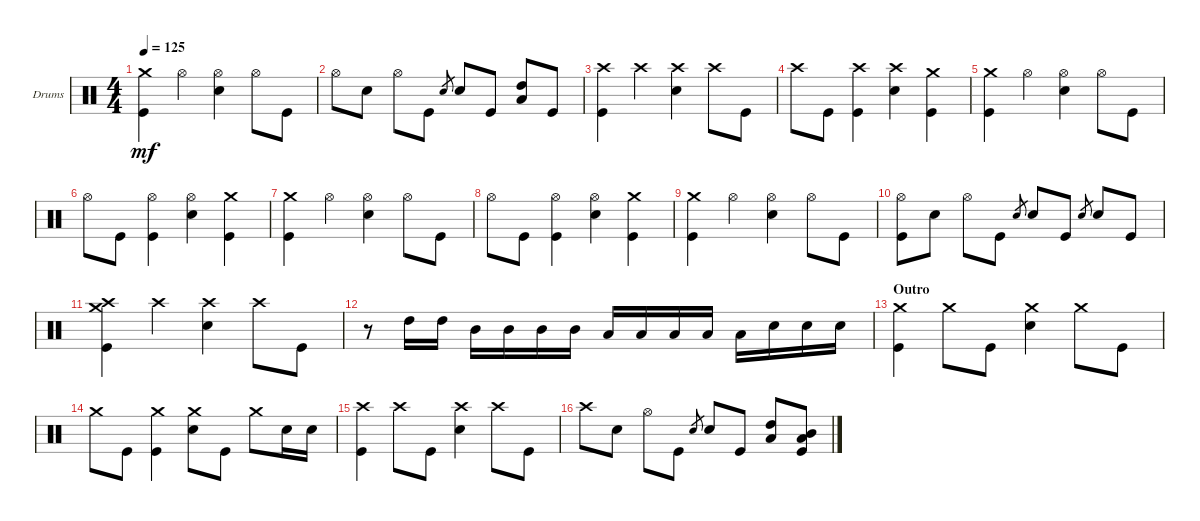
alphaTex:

\bracketExtendMode groupsimilarinstruments
\firstSystemTrackNameOrientation horizontal
\otherSystemsTrackNameOrientation horizontal
\track ("Drums (chad ...)" "Drums") {instrument percussion}
\staff {score}
\articulation defaults
\ts (4 4)
\tempo 125
\clef neutral
\ks c
("Crash medium (hit)" "Kick (hit)").4{dy mf} "Hi-Hat (open)".4 ("Hi-Hat (open)" "Snare (hit) 2").4 "Hi-Hat (open)".8 "Kick (hit)".8 |
"Hi-Hat (open)".8 "Snare (hit) 2".8 "Hi-Hat (open)".8 "Kick (hit)".8 "Snare (hit) 2".8{gr} "Snare (hit) 2".8 "Kick (hit)".8 ("Low Tom (hit)" "High Tom (hit)").8 "Kick (hit)".8 |
("Kick (hit)" "Crash high (hit)").4 "Crash high (hit)".4 ("Snare (hit) 2" "Crash high (hit)").4 "Crash high (hit)".8 "Kick (hit)".8 |
"Crash high (hit)".8 "Kick (hit)".8 ("Kick (hit)" "Crash high (hit)").4 ("Snare (hit) 2" "Crash high (hit)").4 ("Crash medium (hit)" "Kick (hit)").4 |
("Kick (hit)" "Crash medium (hit)").4 "Hi-Hat (open)".4 ("Hi-Hat (open)" "Snare (hit) 2").4 "Hi-Hat (open)".8 "Kick (hit)".8 |
"Hi-Hat (open)".8 "Kick (hit)".8 ("Kick (hit)" "Hi-Hat (open)").4 ("Snare (hit) 2" "Hi-Hat (open)").4 ("Crash medium (hit)" "Kick (hit)").4 |
("Kick (hit)" "Crash medium (hit)").4 "Hi-Hat (open)".4 ("Hi-Hat (open)" "Snare (hit) 2").4 "Hi-Hat (open)".8 "Kick (hit)".8 |
"Hi-Hat (open)".8 "Kick (hit)".8 ("Kick (hit)" "Hi-Hat (open)").4 ("Snare (hit) 2" "Hi-Hat (open)").4 ("Crash medium (hit)" "Kick (hit)").4 |
("Crash medium (hit)" "Kick (hit)").4 "Hi-Hat (open)".4 ("Hi-Hat (open)" "Snare (hit) 2").4 "Hi-Hat (open)".8 "Kick (hit)".8 |
("Hi-Hat (open)" "Kick (hit)").8 "Snare (hit) 2".8 "Hi-Hat (open)".8 "Kick (hit)".8 "Snare (hit) 2".8{gr} "Snare (hit) 2".8 "Kick (hit)".8 "Snare (hit) 2".8{gr} "Snare (hit) 2".8 "Kick (hit)".8 |
("Crash medium (hit)" "Kick (hit)" "Crash high (hit)").4 "Crash high (hit)".4 ("Crash high (hit)" "Snare (hit) 2").4 "Crash high (hit)".8 "Kick (hit)".8 |
r.8 "High Tom (hit)".16 "High Tom (hit)".16 "Mid Tom (hit)".16 "Mid Tom (hit)".16 "Mid Tom (hit)".16 "Mid Tom (hit)".16 "Low Tom (hit)".16 "Low Tom (hit)".16 "Low Tom (hit)".16 "Low Tom (hit)".16 "Low Tom (hit)".16 "Snare (hit) 2".16 "Snare (hit) 2".16 "Snare (hit) 2".16 |
\section ("" "Outro")
("Crash medium (hit)" "Kick (hit)").4 "Crash medium (hit)".8 "Kick (hit)".8 ("Crash medium (hit)" "Snare (hit) 2").4 "Crash medium (hit)".8 "Kick (hit)".8 |
"Crash medium (hit)".8 "Kick (hit)".8 ("Kick (hit)" "Crash medium (hit)").4 ("Snare (hit) 2" "Crash medium (hit)").8 "Kick (hit)".8 "Crash medium (hit)".8 "Snare (hit) 2".16 "Snare (hit) 2".16 |
("Kick (hit)" "Crash high (hit)").4 "Crash high (hit)".8 "Kick (hit)".8 ("Snare (hit) 2" "Crash high (hit)").4 "Crash high (hit)".8 "Kick (hit)".8 |
"Crash high (hit)".8 "Snare (hit) 2".8 "Hi-Hat (open)".8 "Kick (hit)".8 "Snare (hit) 2".8{gr} "Snare (hit) 2".8 "Kick (hit)".8 ("Low Tom (hit)" "High Tom (hit)").8 ("Low Tom (hit)" "Mid Tom (hit)" "Kick (hit)").8
